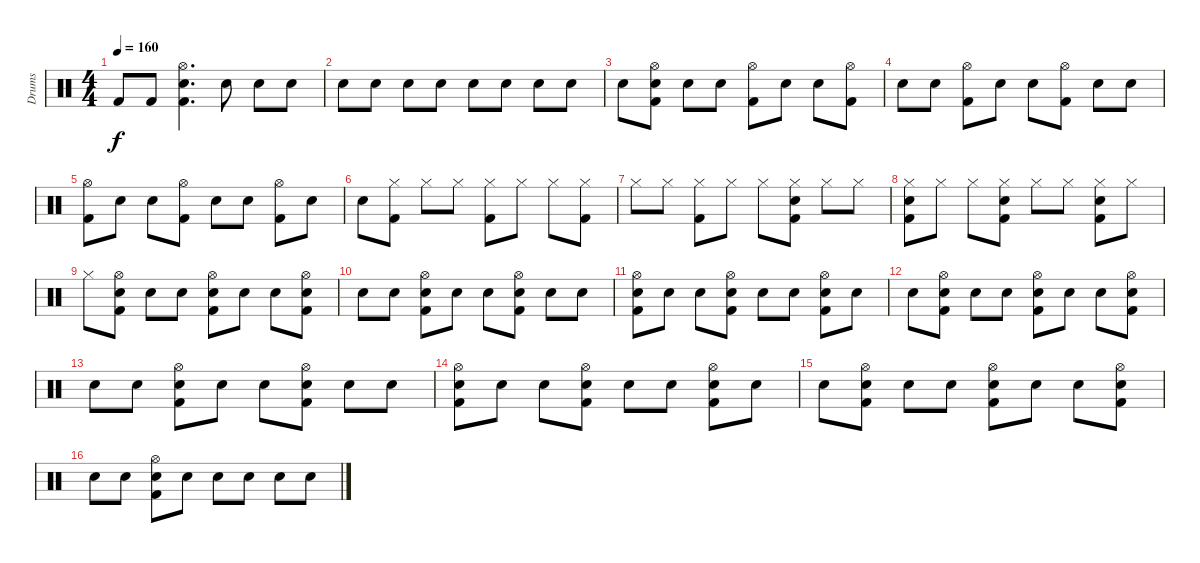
\track ("Drums" "Drums") {instrument percussion}
\staff {score}
\articulation defaults
\ts (4 4)
\tempo 160
\clef neutral
\ks c "Kick (hit) 2".8{dy f} "Kick (hit) 2".8
("Kick (hit) 2" "Snare (hit) 2" "Hi-Hat (open)").4{d} "Snare (hit) 2".8 "Snare (hit) 2".8 "Snare (hit) 2".8 |
"Snare (hit) 2".8 "Snare (hit) 2".8 "Snare (hit) 2".8 "Snare (hit) 2".8 "Snare (hit) 2".8 "Snare (hit) 2".8 "Snare (hit) 2".8 "Snare (hit) 2".8 |
"Snare (hit) 2".8 ("Kick (hit) 2" "Snare (hit) 2" "Hi-Hat (open)").8 "Snare (hit) 2".8 "Snare (hit) 2".8 ("Kick (hit) 2" "Hi-Hat (open)").8 "Snare (hit) 2".8 "Snare (hit) 2".8 ("Kick (hit) 2" "Hi-Hat (open)").8 |
"Snare (hit) 2".8 "Snare (hit) 2".8 ("Kick (hit) 2" "Hi-Hat (open)").8 "Snare (hit) 2".8 "Snare (hit) 2".8 ("Kick (hit) 2" "Hi-Hat (open)").8 "Snare (hit) 2".8 "Snare (hit) 2".8 |
("Kick (hit) 2" "Hi-Hat (open)").8 "Snare (hit) 2".8 "Snare (hit) 2".8 ("Kick (hit) 2" "Hi-Hat (open)").8 "Snare (hit) 2".8 "Snare (hit) 2".8 ("Kick (hit) 2" "Hi-Hat (open)").8 "Snare (hit) 2".8 |
"Snare (hit) 2".8 ("Kick (hit) 2" "Hi-Hat (closed)").8 "Hi-Hat (closed)".8 "Hi-Hat (closed)".8 ("Kick (hit) 2" "Hi-Hat (closed)").8 "Hi-Hat (closed)".8 "Hi-Hat (closed)".8 ("Kick (hit) 2" "Hi-Hat (closed)").8 |
"Hi-Hat (closed)".8 "Hi-Hat (closed)".8 ("Kick (hit) 2" "Hi-Hat (closed)").8 "Hi-Hat (closed)".8 "Hi-Hat (closed)".8 ("Kick (hit) 2" "Snare (hit) 2" "Hi-Hat (closed)").8 "Hi-Hat (closed)".8 "Hi-Hat (closed)".8 |
("Kick (hit) 2" "Snare (hit) 2" "Hi-Hat (closed)").8 "Hi-Hat (closed)".8 "Hi-Hat (closed)".8 ("Kick (hit) 2" "Snare (hit) 2" "Hi-Hat (closed)").8 "Hi-Hat (closed)".8 "Hi-Hat (closed)".8 ("Kick (hit) 2" "Snare (hit) 2" "Hi-Hat (closed)").8 "Hi-Hat (closed)".8 |
"Hi-Hat (closed)".8 ("Kick (hit) 2" "Snare (hit) 2" "Hi-Hat (open)").8 "Snare (hit) 2".8 "Snare (hit) 2".8 ("Kick (hit) 2" "Snare (hit) 2" "Hi-Hat (open)").8 "Snare (hit) 2".8 "Snare (hit) 2".8 ("Kick (hit) 2" "Snare (hit) 2" "Hi-Hat (open)").8 |
"Snare (hit) 2".8 "Snare (hit) 2".8 ("Kick (hit) 2" "Snare (hit) 2" "Hi-Hat (open)").8 "Snare (hit) 2".8 "Snare (hit) 2".8 ("Kick (hit) 2" "Snare (hit) 2" "Hi-Hat (open)").8 "Snare (hit) 2".8 "Snare (hit) 2".8 |
("Kick (hit) 2" "Snare (hit) 2" "Hi-Hat (open)").8 "Snare (hit) 2".8 "Snare (hit) 2".8 ("Kick (hit) 2" "Snare (hit) 2" "Hi-Hat (open)").8 "Snare (hit) 2".8 "Snare (hit) 2".8 ("Kick (hit) 2" "Snare (hit) 2" "Hi-Hat (open)").8 "Snare (hit) 2".8 |
"Snare (hit) 2".8 ("Kick (hit) 2" "Snare (hit) 2" "Hi-Hat (open)").8 "Snare (hit) 2".8 "Snare (hit) 2".8 ("Kick (hit) 2" "Snare (hit) 2" "Hi-Hat (open)").8 "Snare (hit) 2".8 "Snare (hit) 2".8 ("Kick (hit) 2" "Snare (hit) 2" "Hi-Hat (open)").8 |
"Snare (hit) 2".8 "Snare (hit) 2".8 ("Kick (hit) 2" "Snare (hit) 2" "Hi-Hat (open)").8 "Snare (hit) 2".8 "Snare (hit) 2".8 ("Kick (hit) 2" "Snare (hit) 2" "Hi-Hat (open)").8 "Snare (hit) 2".8 "Snare (hit) 2".8 |
("Kick (hit) 2" "Snare (hit) 2" "Hi-Hat (open)").8 "Snare (hit) 2".8 "Snare (hit) 2".8 ("Kick (hit) 2" "Snare (hit) 2" "Hi-Hat (open)").8 "Snare (hit) 2".8 "Snare (hit) 2".8 ("Kick (hit) 2" "Snare (hit) 2" "Hi-Hat (open)").8 "Snare (hit) 2".8 |
"Snare (hit) 2".8 ("Kick (hit) 2" "Snare (hit) 2" "Hi-Hat (open)").8 "Snare (hit) 2".8 "Snare (hit) 2".8 ("Kick (hit) 2" "Snare (hit) 2" "Hi-Hat (open)").8 "Snare (hit) 2".8 "Snare (hit) 2".8 ("Kick (hit) 2" "Snare (hit) 2" "Hi-Hat (open)").8 |
"Snare (hit) 2".8 "Snare (hit) 2".8 ("Kick (hit) 2" "Snare (hit) 2" "Hi-Hat (open)").8 "Snare (hit) 2".8 "Snare (hit) 2".8 "Snare (hit) 2".8 "Snare (hit) 2".8 "Snare (hit) 2".8
